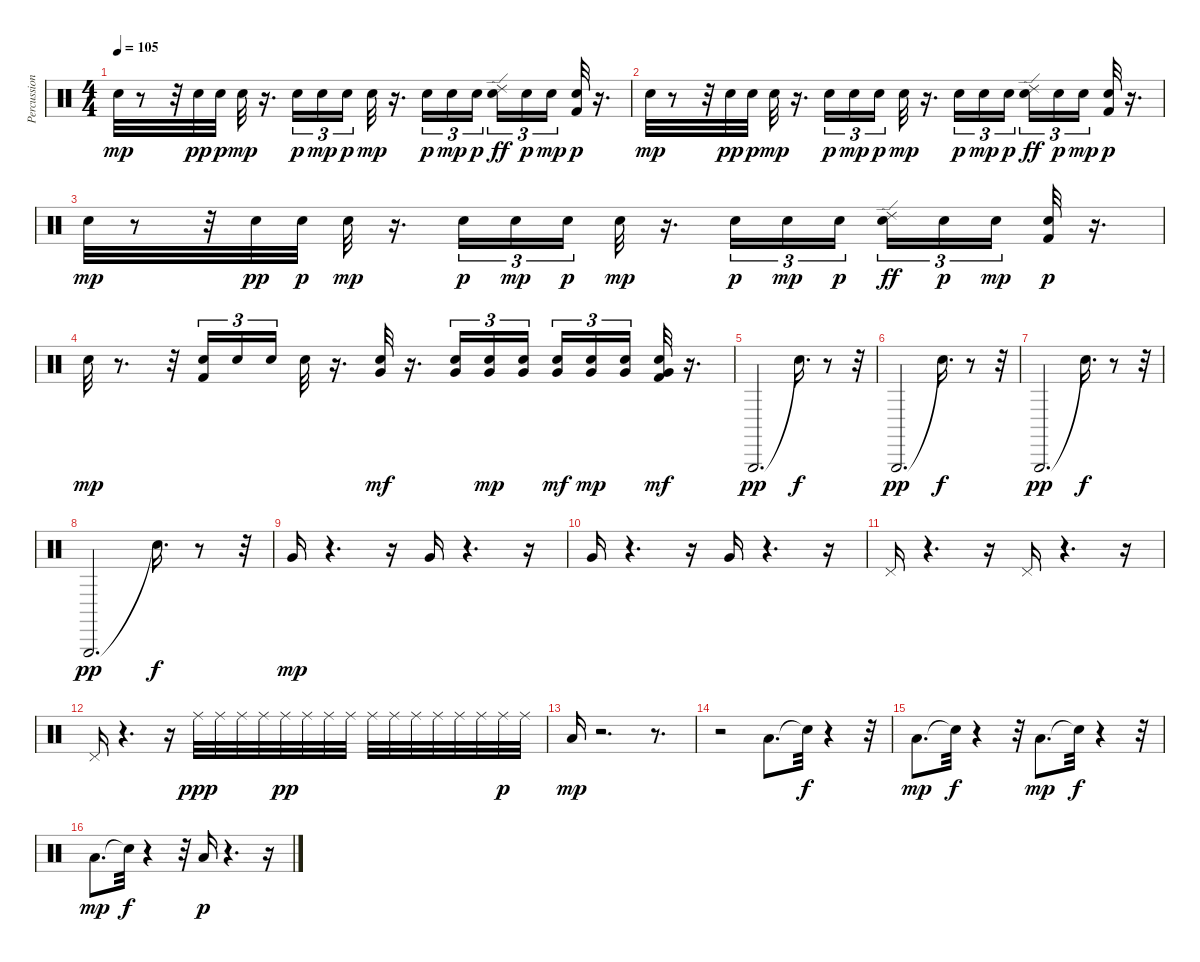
\track ("Percussion" "Percussion") {instrument percussion}
\staff {score}
\articulation defaults
\ts (4 4)
\tempo 105
\clef neutral
\ks c "Snare (hit) 2".32{dy mp}
r.8 r.32 "Snare (hit) 2".32{dy pp} "Snare (hit) 2".32{dy p} "Snare (hit) 2".32{dy mp} r.16{d} "Snare (hit) 2".16{tu (3 2) dy p} "Snare (hit) 2".16{tu (3 2) dy mp} "Snare (hit) 2".16{tu (3 2) dy p} "Snare (hit) 2".32{dy mp} r.16{d} "Snare (hit) 2".16{tu (3 2) dy p} "Snare (hit) 2".16{tu (3 2) dy mp} "Snare (hit) 2".16{tu (3 2) dy p} ("Snare (hit) 2" "Ride (edge) 2").16{tu (3 2) dy ff} "Snare (hit) 2".16{tu (3 2) dy p} "Snare (hit) 2".16{tu (3 2) dy mp beam splitsecondary} ("Snare (hit) 2" "Kick (hit) 2").32{dy p} r.16{d} |
"Snare (hit) 2".32{dy mp} r.8 r.32 "Snare (hit) 2".32{dy pp} "Snare (hit) 2".32{dy p} "Snare (hit) 2".32{dy mp} r.16{d} "Snare (hit) 2".16{tu (3 2) dy p} "Snare (hit) 2".16{tu (3 2) dy mp} "Snare (hit) 2".16{tu (3 2) dy p} "Snare (hit) 2".32{dy mp} r.16{d} "Snare (hit) 2".16{tu (3 2) dy p} "Snare (hit) 2".16{tu (3 2) dy mp} "Snare (hit) 2".16{tu (3 2) dy p} ("Snare (hit) 2" "Ride (edge) 2").16{tu (3 2) dy ff} "Snare (hit) 2".16{tu (3 2) dy p} "Snare (hit) 2".16{tu (3 2) dy mp beam splitsecondary} ("Kick (hit) 2" "Snare (hit) 2").32{dy p} r.16{d} |
"Snare (hit) 2".32{dy mp} r.8 r.32 "Snare (hit) 2".32{dy pp} "Snare (hit) 2".32{dy p} "Snare (hit) 2".32{dy mp} r.16{d} "Snare (hit) 2".16{tu (3 2) dy p} "Snare (hit) 2".16{tu (3 2) dy mp} "Snare (hit) 2".16{tu (3 2) dy p} "Snare (hit) 2".32{dy mp} r.16{d} "Snare (hit) 2".16{tu (3 2) dy p} "Snare (hit) 2".16{tu (3 2) dy mp} "Snare (hit) 2".16{tu (3 2) dy p} ("Snare (hit) 2" "Ride (edge) 2").16{tu (3 2) dy ff} "Snare (hit) 2".16{tu (3 2) dy p} "Snare (hit) 2".16{tu (3 2) dy mp beam splitsecondary} ("Kick (hit) 2" "Snare (hit) 2").32{dy p} r.16{d} |
"Snare (hit) 2".32{dy mp} r.8{d} r.32 ("Snare (hit) 2" "Kick (hit) 2").16{tu (3 2)} "Snare (hit) 2".16{tu (3 2)} "Snare (hit) 2".16{tu (3 2) beam splitsecondary} "Snare (hit) 2".32 r.16{d} ("Snare (hit) 2" "Very Low Tom (hit)").32{dy mf} r.16{d} ("Snare (hit) 2" "Very Low Tom (hit)").16{tu (3 2)} ("Snare (hit) 2" "Very Low Tom (hit)").16{tu (3 2) dy mp} ("Snare (hit) 2" "Very Low Tom (hit)").16{tu (3 2)} ("Snare (hit) 2" "Very Low Tom (hit)").16{tu (3 2) dy mf} ("Snare (hit) 2" "Very Low Tom (hit)").16{tu (3 2) dy mp} ("Snare (hit) 2" "Very Low Tom (hit)").16{tu (3 2) beam splitsecondary} ("Very Low Tom (hit)" "Snare (hit) 2" "Kick (hit) 2").32{dy mf} r.16{d} |
"Triangle (hit)".2{d dy pp} "Snare (hit)"{t}.16{d dy f} r.8 r.32 |
"Triangle (hit)".2{d dy pp} "Snare (hit)"{t}.16{d dy f} r.8 r.32 |
"Triangle (hit)".2{d dy pp} "Snare (hit)"{t}.16{d dy f} r.8 r.32 |
"Triangle (hit)".2{d dy pp} "Snare (hit)"{t}.16{d dy f} r.8 r.32 |
"Very Low Tom (hit)".16{dy mp} r.4{d} r.16 "Very Low Tom (hit)".16 r.4{d} r.16 |
"Very Low Tom (hit)".16 r.4{d} r.16 "Very Low Tom (hit)".16 r.4{d} r.16 |
"Pedal Hi-Hat (hit)".16 r.4{d} r.16 "Pedal Hi-Hat (hit)".16 r.4{d} r.16 |
"Pedal Hi-Hat (hit)".16 r.4{d} r.16 "Ride (middle)".32{dy ppp} "Ride (middle)".32 "Ride (middle)".32 "Ride (middle)".32 "Ride (middle)".32{dy pp} "Ride (middle)".32 "Ride (middle)".32 "Ride (middle)".32 "Ride (middle)".32 "Ride (middle)".32 "Ride (middle)".32 "Ride (middle)".32 "Ride (middle)".32 "Ride (middle)".32 "Ride (middle)".32{dy p} "Ride (middle)".32 |
"Low Tom (hit)".16{dy mp} r.2{d} r.8{d} |
r.2 "Low Tom (hit)".8{d} "Snare (hit)"{t}.32{dy f} r.4 r.32 |
"Low Tom (hit)".8{d dy mp} "Snare (hit)"{t}.32{dy f} r.4 r.32 "Low Tom (hit)".8{d dy mp} "Snare (hit)"{t}.32{dy f} r.4 r.32 |
"Low Tom (hit)".8{d dy mp} "Snare (hit)"{t}.32{dy f} r.4 r.32 "Low Tom (hit)".16{dy p} r.4{d} r.16
